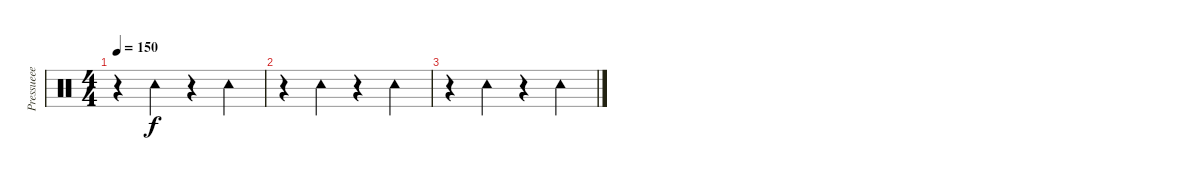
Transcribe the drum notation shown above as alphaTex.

\track ("Pressueee " "Pressueee ") {instrument percussion}
\staff {score}
\articulation defaults
\ts (4 4)
\tempo 150
\clef neutral
\ks c
r.4{dy f} "Tambourine (hit)".4 r.4 "Tambourine (hit)".4 |
r.4 "Tambourine (hit)".4 r.4 "Tambourine (hit)".4 |
r.4 "Tambourine (hit)".4 r.4 "Tambourine (hit)".4
